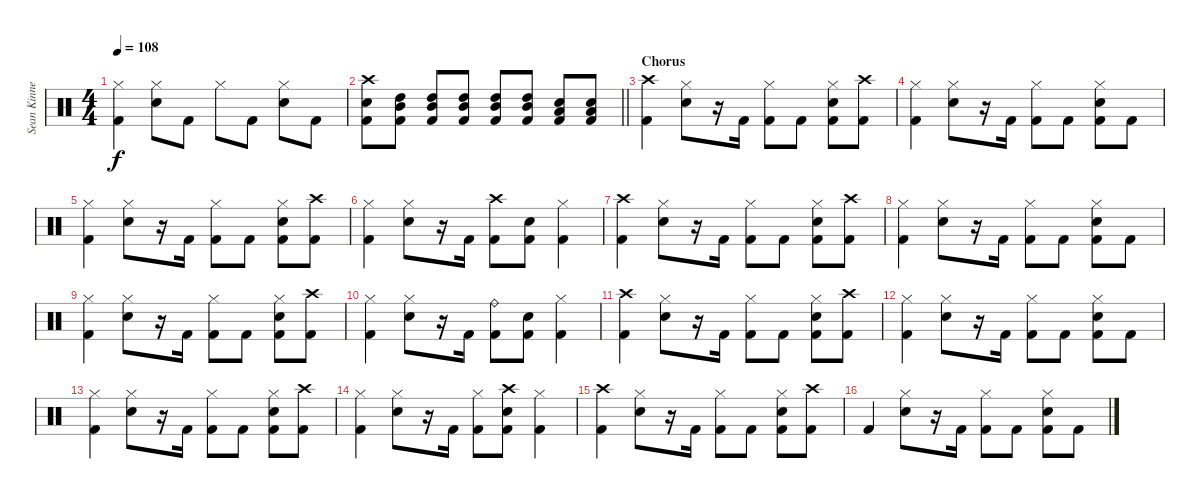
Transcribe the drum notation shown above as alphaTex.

\track ("Sean Kinney- Drums" "Sean Kinne") {instrument percussion}
\staff {score}
\articulation defaults
\ts (4 4)
\tempo 108
\clef neutral
\ks c
("Hi-Hat (closed)" "Kick (hit) 2").4{dy f} ("Hi-Hat (closed)" "Electric Snare (hit)").8 "Kick (hit) 2".8 "Hi-Hat (closed)".8 "Kick (hit) 2".8 ("Hi-Hat (closed)" "Electric Snare (hit)").8 "Kick (hit) 2".8 |
\barLineRight lightlight
("Crash high (hit)" "Electric Snare (hit)" "Kick (hit) 2").8 ("Mid Tom (hit)" "High Tom (hit)" "Kick (hit) 2").8 ("Mid Tom (hit)" "High Tom (hit)" "Kick (hit) 2").8 ("Mid Tom (hit)" "High Tom (hit)" "Kick (hit) 2").8 ("Mid Tom (hit)" "High Tom (hit)" "Kick (hit) 2").8 ("Mid Tom (hit)" "High Tom (hit)" "Kick (hit) 2").8 ("Electric Snare (hit)" "Low Tom (hit)" "Kick (hit) 2").8 ("Electric Snare (hit)" "Low Tom (hit)" "Kick (hit) 2").8 |
\section ("" "Chorus")
("Crash high (hit)" "Kick (hit) 2").4 ("Hi-Hat (closed)" "Electric Snare (hit)").8 r.16 "Kick (hit) 2".16 ("Hi-Hat (closed)" "Kick (hit) 2").8 "Kick (hit) 2".8 ("Hi-Hat (closed)" "Electric Snare (hit)" "Kick (hit) 2").8 ("Crash high (hit)" "Kick (hit) 2").8 |
("Hi-Hat (closed)" "Kick (hit) 2").4 ("Hi-Hat (closed)" "Electric Snare (hit)").8 r.16 "Kick (hit) 2".16 ("Hi-Hat (closed)" "Kick (hit) 2").8 "Kick (hit) 2".8 ("Hi-Hat (closed)" "Electric Snare (hit)" "Kick (hit) 2").8 "Kick (hit) 2".8 |
("Hi-Hat (closed)" "Kick (hit) 2").4 ("Hi-Hat (closed)" "Electric Snare (hit)").8 r.16 "Kick (hit) 2".16 ("Hi-Hat (closed)" "Kick (hit) 2").8 "Kick (hit) 2".8 ("Hi-Hat (closed)" "Electric Snare (hit)" "Kick (hit) 2").8 ("Crash high (hit)" "Kick (hit) 2").8 |
("Hi-Hat (closed)" "Kick (hit) 2").4 ("Hi-Hat (closed)" "Electric Snare (hit)").8 r.16 "Kick (hit) 2".16 ("Crash high (hit)" "Kick (hit) 2").8 ("Electric Snare (hit)" "Kick (hit) 2").8 ("Hi-Hat (closed)" "Kick (hit) 2").4 |
("Crash high (hit)" "Kick (hit) 2").4 ("Hi-Hat (closed)" "Electric Snare (hit)").8 r.16 "Kick (hit) 2".16 ("Hi-Hat (closed)" "Kick (hit) 2").8 "Kick (hit) 2".8 ("Hi-Hat (closed)" "Electric Snare (hit)" "Kick (hit) 2").8 ("Crash high (hit)" "Kick (hit) 2").8 |
("Hi-Hat (closed)" "Kick (hit) 2").4 ("Hi-Hat (closed)" "Electric Snare (hit)").8 r.16 "Kick (hit) 2".16 ("Hi-Hat (closed)" "Kick (hit) 2").8 "Kick (hit) 2".8 ("Hi-Hat (closed)" "Electric Snare (hit)" "Kick (hit) 2").8 "Kick (hit) 2".8 |
("Hi-Hat (closed)" "Kick (hit) 2").4 ("Hi-Hat (closed)" "Electric Snare (hit)").8 r.16 "Kick (hit) 2".16 ("Hi-Hat (closed)" "Kick (hit) 2").8 "Kick (hit) 2".8 ("Hi-Hat (closed)" "Electric Snare (hit)" "Kick (hit) 2").8 ("Crash high (hit)" "Kick (hit) 2").8 |
("Hi-Hat (closed)" "Kick (hit) 2").4 ("Hi-Hat (closed)" "Electric Snare (hit)").8 r.16 "Kick (hit) 2".16 ("Ride (bell)" "Kick (hit) 2").8 ("Electric Snare (hit)" "Kick (hit) 2").8 ("Hi-Hat (closed)" "Kick (hit) 2").4 |
("Crash high (hit)" "Kick (hit) 2").4 ("Hi-Hat (closed)" "Electric Snare (hit)").8 r.16 "Kick (hit) 2".16 ("Hi-Hat (closed)" "Kick (hit) 2").8 "Kick (hit) 2".8 ("Hi-Hat (closed)" "Electric Snare (hit)" "Kick (hit) 2").8 ("Crash high (hit)" "Kick (hit) 2").8 |
("Hi-Hat (closed)" "Kick (hit) 2").4 ("Hi-Hat (closed)" "Electric Snare (hit)").8 r.16 "Kick (hit) 2".16 ("Hi-Hat (closed)" "Kick (hit) 2").8 "Kick (hit) 2".8 ("Hi-Hat (closed)" "Electric Snare (hit)" "Kick (hit) 2").8 "Kick (hit) 2".8 |
("Hi-Hat (closed)" "Kick (hit) 2").4 ("Hi-Hat (closed)" "Electric Snare (hit)").8 r.16 "Kick (hit) 2".16 ("Hi-Hat (closed)" "Kick (hit) 2").8 "Kick (hit) 2".8 ("Hi-Hat (closed)" "Electric Snare (hit)" "Kick (hit) 2").8 ("Crash high (hit)" "Kick (hit) 2").8 |
("Hi-Hat (closed)" "Kick (hit) 2").4 ("Hi-Hat (closed)" "Electric Snare (hit)").8 r.16 "Kick (hit) 2".16 ("Hi-Hat (closed)" "Kick (hit) 2").8 ("Crash high (hit)" "Electric Snare (hit)" "Kick (hit) 2").8 ("Hi-Hat (closed)" "Kick (hit) 2").4 |
("Crash high (hit)" "Kick (hit) 2").4 ("Hi-Hat (closed)" "Electric Snare (hit)").8 r.16 "Kick (hit) 2".16 ("Hi-Hat (closed)" "Kick (hit) 2").8 "Kick (hit) 2".8 ("Hi-Hat (closed)" "Electric Snare (hit)" "Kick (hit) 2").8 ("Crash high (hit)" "Kick (hit) 2").8 |
"Kick (hit) 2".4 ("Hi-Hat (closed)" "Electric Snare (hit)").8 r.16 "Kick (hit) 2".16 ("Hi-Hat (closed)" "Kick (hit) 2").8 "Kick (hit) 2".8 ("Hi-Hat (closed)" "Electric Snare (hit)" "Kick (hit) 2").8 "Kick (hit) 2".8
